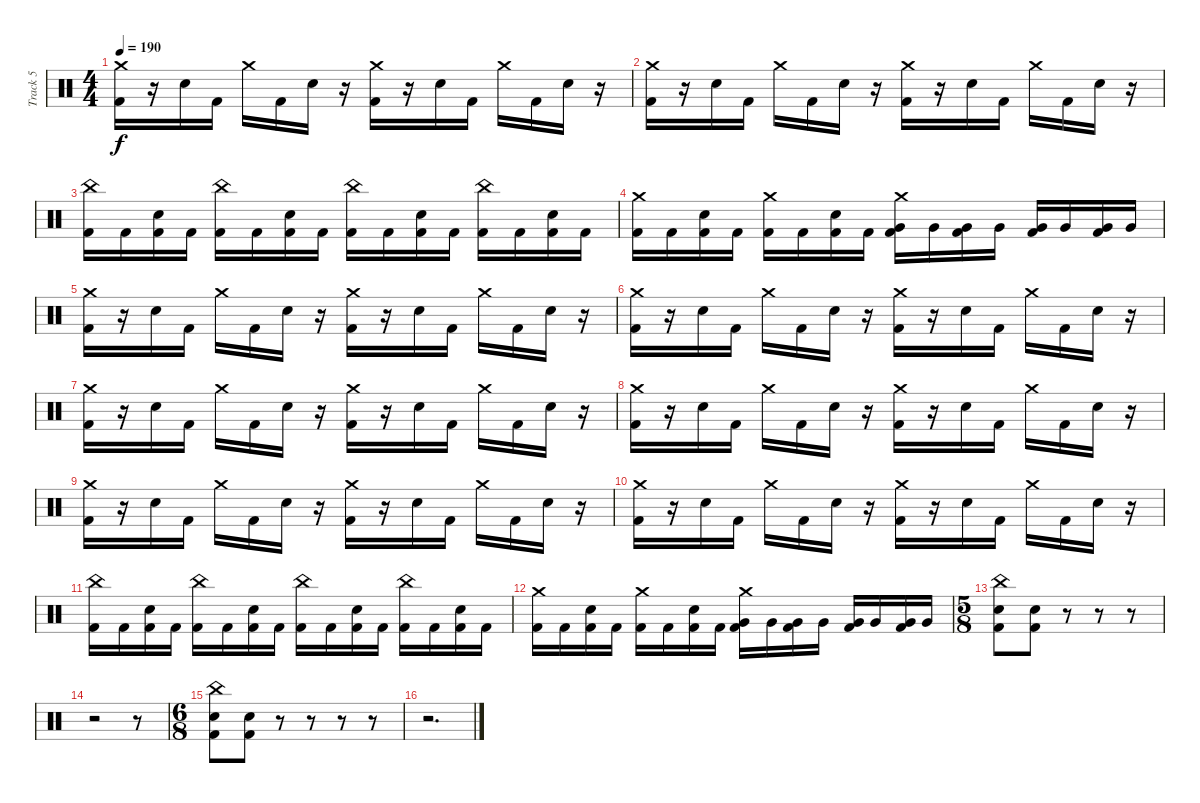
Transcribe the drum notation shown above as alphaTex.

\track ("Track 5" "Track 5") {instrument percussion}
\staff {score}
\articulation defaults
\ts (4 4)
\tempo 190
\clef neutral
\ks c
("Crash medium (hit)" "Kick (hit) 2").16{dy f} r.16 "Electric Snare (hit)".16 "Kick (hit) 2".16 "Crash medium (hit)".16 "Kick (hit) 2".16 "Electric Snare (hit)".16 r.16 ("Crash medium (hit)" "Kick (hit) 2").16 r.16 "Electric Snare (hit)".16 "Kick (hit) 2".16 "Crash medium (hit)".16 "Kick (hit) 2".16 "Electric Snare (hit)".16 r.16 |
("Crash medium (hit)" "Kick (hit) 2").16 r.16 "Electric Snare (hit)".16 "Kick (hit) 2".16 "Crash medium (hit)".16 "Kick (hit) 2".16 "Electric Snare (hit)".16 r.16 ("Crash medium (hit)" "Kick (hit) 2").16 r.16 "Electric Snare (hit)".16 "Kick (hit) 2".16 "Crash medium (hit)".16 "Kick (hit) 2".16 "Electric Snare (hit)".16 r.16 |
("China (hit)" "Kick (hit) 2").16 "Kick (hit) 2".16 ("Electric Snare (hit)" "Kick (hit) 2").16 "Kick (hit) 2".16 ("China (hit)" "Kick (hit) 2").16 "Kick (hit) 2".16 ("Electric Snare (hit)" "Kick (hit) 2").16 "Kick (hit) 2".16 ("China (hit)" "Kick (hit) 2").16 "Kick (hit) 2".16 ("Electric Snare (hit)" "Kick (hit) 2").16 "Kick (hit) 2".16 ("China (hit)" "Kick (hit) 2").16 "Kick (hit) 2".16 ("Electric Snare (hit)" "Kick (hit) 2").16 "Kick (hit) 2".16 |
("Crash medium (hit)" "Kick (hit) 2").16 "Kick (hit) 2".16 ("Electric Snare (hit)" "Kick (hit) 2").16 "Kick (hit) 2".16 ("Crash medium (hit)" "Kick (hit) 2").16 "Kick (hit) 2".16 ("Electric Snare (hit)" "Kick (hit) 2").16 "Kick (hit) 2".16 ("Crash medium (hit)" "Very Low Tom (hit)" "Kick (hit) 2").16 "Very Low Tom (hit)".16 ("Very Low Tom (hit)" "Kick (hit) 2").16 "Very Low Tom (hit)".16 ("Very Low Tom (hit)" "Kick (hit) 2").16 "Very Low Tom (hit)".16 ("Very Low Tom (hit)" "Kick (hit) 2").16 "Very Low Tom (hit)".16 |
("Crash medium (hit)" "Kick (hit) 2").16 r.16 "Electric Snare (hit)".16 "Kick (hit) 2".16 "Crash medium (hit)".16 "Kick (hit) 2".16 "Electric Snare (hit)".16 r.16 ("Crash medium (hit)" "Kick (hit) 2").16 r.16 "Electric Snare (hit)".16 "Kick (hit) 2".16 "Crash medium (hit)".16 "Kick (hit) 2".16 "Electric Snare (hit)".16 r.16 |
("Crash medium (hit)" "Kick (hit) 2").16 r.16 "Electric Snare (hit)".16 "Kick (hit) 2".16 "Crash medium (hit)".16 "Kick (hit) 2".16 "Electric Snare (hit)".16 r.16 ("Crash medium (hit)" "Kick (hit) 2").16 r.16 "Electric Snare (hit)".16 "Kick (hit) 2".16 "Crash medium (hit)".16 "Kick (hit) 2".16 "Electric Snare (hit)".16 r.16 |
("Crash medium (hit)" "Kick (hit) 2").16 r.16 "Electric Snare (hit)".16 "Kick (hit) 2".16 "Crash medium (hit)".16 "Kick (hit) 2".16 "Electric Snare (hit)".16 r.16 ("Crash medium (hit)" "Kick (hit) 2").16 r.16 "Electric Snare (hit)".16 "Kick (hit) 2".16 "Crash medium (hit)".16 "Kick (hit) 2".16 "Electric Snare (hit)".16 r.16 |
("Crash medium (hit)" "Kick (hit) 2").16 r.16 "Electric Snare (hit)".16 "Kick (hit) 2".16 "Crash medium (hit)".16 "Kick (hit) 2".16 "Electric Snare (hit)".16 r.16 ("Crash medium (hit)" "Kick (hit) 2").16 r.16 "Electric Snare (hit)".16 "Kick (hit) 2".16 "Crash medium (hit)".16 "Kick (hit) 2".16 "Electric Snare (hit)".16 r.16 |
("Crash medium (hit)" "Kick (hit) 2").16 r.16 "Electric Snare (hit)".16 "Kick (hit) 2".16 "Crash medium (hit)".16 "Kick (hit) 2".16 "Electric Snare (hit)".16 r.16 ("Crash medium (hit)" "Kick (hit) 2").16 r.16 "Electric Snare (hit)".16 "Kick (hit) 2".16 "Crash medium (hit)".16 "Kick (hit) 2".16 "Electric Snare (hit)".16 r.16 |
("Crash medium (hit)" "Kick (hit) 2").16 r.16 "Electric Snare (hit)".16 "Kick (hit) 2".16 "Crash medium (hit)".16 "Kick (hit) 2".16 "Electric Snare (hit)".16 r.16 ("Crash medium (hit)" "Kick (hit) 2").16 r.16 "Electric Snare (hit)".16 "Kick (hit) 2".16 "Crash medium (hit)".16 "Kick (hit) 2".16 "Electric Snare (hit)".16 r.16 |
("China (hit)" "Kick (hit) 2").16 "Kick (hit) 2".16 ("Electric Snare (hit)" "Kick (hit) 2").16 "Kick (hit) 2".16 ("China (hit)" "Kick (hit) 2").16 "Kick (hit) 2".16 ("Electric Snare (hit)" "Kick (hit) 2").16 "Kick (hit) 2".16 ("China (hit)" "Kick (hit) 2").16 "Kick (hit) 2".16 ("Electric Snare (hit)" "Kick (hit) 2").16 "Kick (hit) 2".16 ("China (hit)" "Kick (hit) 2").16 "Kick (hit) 2".16 ("Electric Snare (hit)" "Kick (hit) 2").16 "Kick (hit) 2".16 |
("Crash medium (hit)" "Kick (hit) 2").16 "Kick (hit) 2".16 ("Electric Snare (hit)" "Kick (hit) 2").16 "Kick (hit) 2".16 ("Crash medium (hit)" "Kick (hit) 2").16 "Kick (hit) 2".16 ("Electric Snare (hit)" "Kick (hit) 2").16 "Kick (hit) 2".16 ("Crash medium (hit)" "Very Low Tom (hit)" "Kick (hit) 2").16 "Very Low Tom (hit)".16 ("Very Low Tom (hit)" "Kick (hit) 2").16 "Very Low Tom (hit)".16 ("Very Low Tom (hit)" "Kick (hit) 2").16 "Very Low Tom (hit)".16 ("Very Low Tom (hit)" "Kick (hit) 2").16 "Very Low Tom (hit)".16 |
\ts (5 8)
("China (hit)" "Electric Snare (hit)" "Kick (hit) 2").8 ("Electric Snare (hit)" "Kick (hit) 2").8 r.8 r.8 r.8 |
r.2 r.8 |
\ts (6 8)
("China (hit)" "Electric Snare (hit)" "Kick (hit) 2").8 ("Electric Snare (hit)" "Kick (hit) 2").8 r.8 r.8 r.8 r.8 |
r.2{d}
